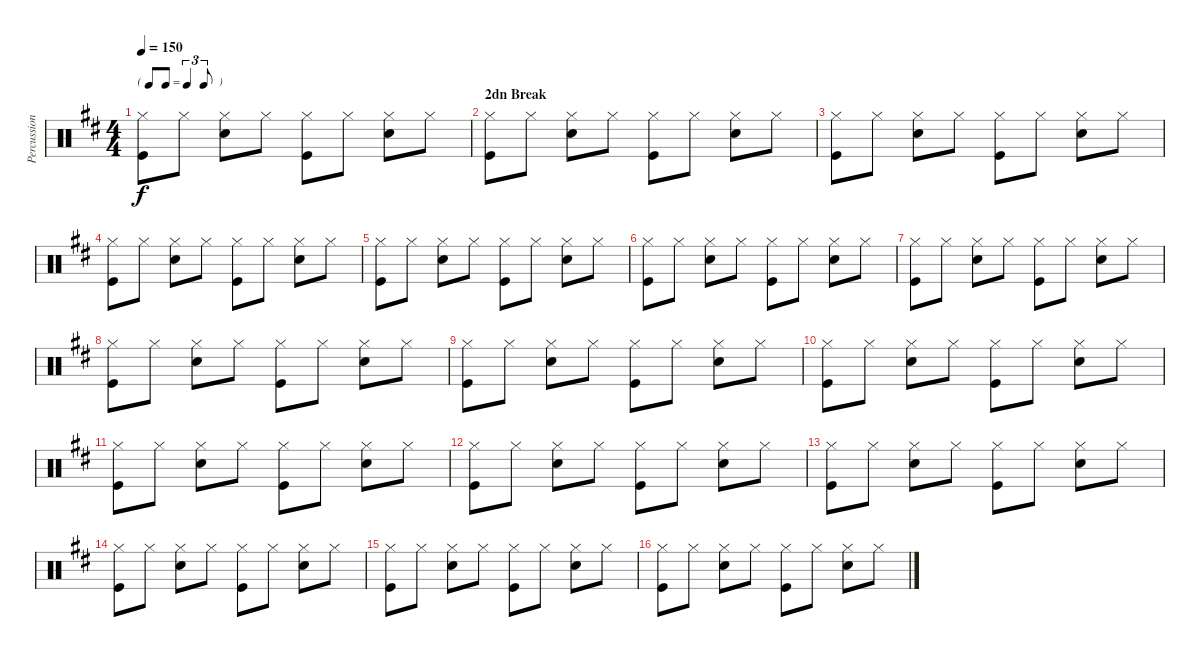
\track ("Percussion" "Percussion") {instrument percussion}
\staff {score}
\articulation defaults
\ts (4 4)
\tf triplet8th
\tempo 150
\clef neutral
\ks d
("Hi-Hat (closed)" "Kick (hit)").8{dy f} "Hi-Hat (closed)".8 ("Hi-Hat (closed)" "Snare (hit) 2").8 "Hi-Hat (closed)".8 ("Hi-Hat (closed)" "Kick (hit)").8 "Hi-Hat (closed)".8 ("Hi-Hat (closed)" "Snare (hit) 2").8 "Hi-Hat (closed)".8 |
\section ("" "2dn Break")
("Hi-Hat (closed)" "Kick (hit)").8 "Hi-Hat (closed)".8 ("Hi-Hat (closed)" "Snare (hit) 2").8 "Hi-Hat (closed)".8 ("Hi-Hat (closed)" "Kick (hit)").8 "Hi-Hat (closed)".8 ("Hi-Hat (closed)" "Snare (hit) 2").8 "Hi-Hat (closed)".8 |
("Hi-Hat (closed)" "Kick (hit)").8 "Hi-Hat (closed)".8 ("Hi-Hat (closed)" "Snare (hit) 2").8 "Hi-Hat (closed)".8 ("Hi-Hat (closed)" "Kick (hit)").8 "Hi-Hat (closed)".8 ("Hi-Hat (closed)" "Snare (hit) 2").8 "Hi-Hat (closed)".8 |
("Hi-Hat (closed)" "Kick (hit)").8 "Hi-Hat (closed)".8 ("Hi-Hat (closed)" "Snare (hit) 2").8 "Hi-Hat (closed)".8 ("Hi-Hat (closed)" "Kick (hit)").8 "Hi-Hat (closed)".8 ("Hi-Hat (closed)" "Snare (hit) 2").8 "Hi-Hat (closed)".8 |
("Hi-Hat (closed)" "Kick (hit)").8 "Hi-Hat (closed)".8 ("Hi-Hat (closed)" "Snare (hit) 2").8 "Hi-Hat (closed)".8 ("Hi-Hat (closed)" "Kick (hit)").8 "Hi-Hat (closed)".8 ("Hi-Hat (closed)" "Snare (hit) 2").8 "Hi-Hat (closed)".8 |
("Hi-Hat (closed)" "Kick (hit)").8 "Hi-Hat (closed)".8 ("Hi-Hat (closed)" "Snare (hit) 2").8 "Hi-Hat (closed)".8 ("Hi-Hat (closed)" "Kick (hit)").8 "Hi-Hat (closed)".8 ("Hi-Hat (closed)" "Snare (hit) 2").8 "Hi-Hat (closed)".8 |
("Hi-Hat (closed)" "Kick (hit)").8 "Hi-Hat (closed)".8 ("Hi-Hat (closed)" "Snare (hit) 2").8 "Hi-Hat (closed)".8 ("Hi-Hat (closed)" "Kick (hit)").8 "Hi-Hat (closed)".8 ("Hi-Hat (closed)" "Snare (hit) 2").8 "Hi-Hat (closed)".8 |
("Hi-Hat (closed)" "Kick (hit)").8 "Hi-Hat (closed)".8 ("Hi-Hat (closed)" "Snare (hit) 2").8 "Hi-Hat (closed)".8 ("Hi-Hat (closed)" "Kick (hit)").8 "Hi-Hat (closed)".8 ("Hi-Hat (closed)" "Snare (hit) 2").8 "Hi-Hat (closed)".8 |
("Hi-Hat (closed)" "Kick (hit)").8 "Hi-Hat (closed)".8 ("Hi-Hat (closed)" "Snare (hit) 2").8 "Hi-Hat (closed)".8 ("Hi-Hat (closed)" "Kick (hit)").8 "Hi-Hat (closed)".8 ("Hi-Hat (closed)" "Snare (hit) 2").8 "Hi-Hat (closed)".8 |
("Hi-Hat (closed)" "Kick (hit)").8 "Hi-Hat (closed)".8 ("Hi-Hat (closed)" "Snare (hit) 2").8 "Hi-Hat (closed)".8 ("Hi-Hat (closed)" "Kick (hit)").8 "Hi-Hat (closed)".8 ("Hi-Hat (closed)" "Snare (hit) 2").8 "Hi-Hat (closed)".8 |
("Hi-Hat (closed)" "Kick (hit)").8 "Hi-Hat (closed)".8 ("Hi-Hat (closed)" "Snare (hit) 2").8 "Hi-Hat (closed)".8 ("Hi-Hat (closed)" "Kick (hit)").8 "Hi-Hat (closed)".8 ("Hi-Hat (closed)" "Snare (hit) 2").8 "Hi-Hat (closed)".8 |
("Hi-Hat (closed)" "Kick (hit)").8 "Hi-Hat (closed)".8 ("Hi-Hat (closed)" "Snare (hit) 2").8 "Hi-Hat (closed)".8 ("Hi-Hat (closed)" "Kick (hit)").8 "Hi-Hat (closed)".8 ("Hi-Hat (closed)" "Snare (hit) 2").8 "Hi-Hat (closed)".8 |
("Hi-Hat (closed)" "Kick (hit)").8 "Hi-Hat (closed)".8 ("Hi-Hat (closed)" "Snare (hit) 2").8 "Hi-Hat (closed)".8 ("Hi-Hat (closed)" "Kick (hit)").8 "Hi-Hat (closed)".8 ("Hi-Hat (closed)" "Snare (hit) 2").8 "Hi-Hat (closed)".8 |
("Hi-Hat (closed)" "Kick (hit)").8 "Hi-Hat (closed)".8 ("Hi-Hat (closed)" "Snare (hit) 2").8 "Hi-Hat (closed)".8 ("Hi-Hat (closed)" "Kick (hit)").8 "Hi-Hat (closed)".8 ("Hi-Hat (closed)" "Snare (hit) 2").8 "Hi-Hat (closed)".8 |
("Hi-Hat (closed)" "Kick (hit)").8 "Hi-Hat (closed)".8 ("Hi-Hat (closed)" "Snare (hit) 2").8 "Hi-Hat (closed)".8 ("Hi-Hat (closed)" "Kick (hit)").8 "Hi-Hat (closed)".8 ("Hi-Hat (closed)" "Snare (hit) 2").8 "Hi-Hat (closed)".8 |
("Hi-Hat (closed)" "Kick (hit)").8 "Hi-Hat (closed)".8 ("Hi-Hat (closed)" "Snare (hit) 2").8 "Hi-Hat (closed)".8 ("Hi-Hat (closed)" "Kick (hit)").8 "Hi-Hat (closed)".8 ("Hi-Hat (closed)" "Snare (hit) 2").8 "Hi-Hat (closed)".8
